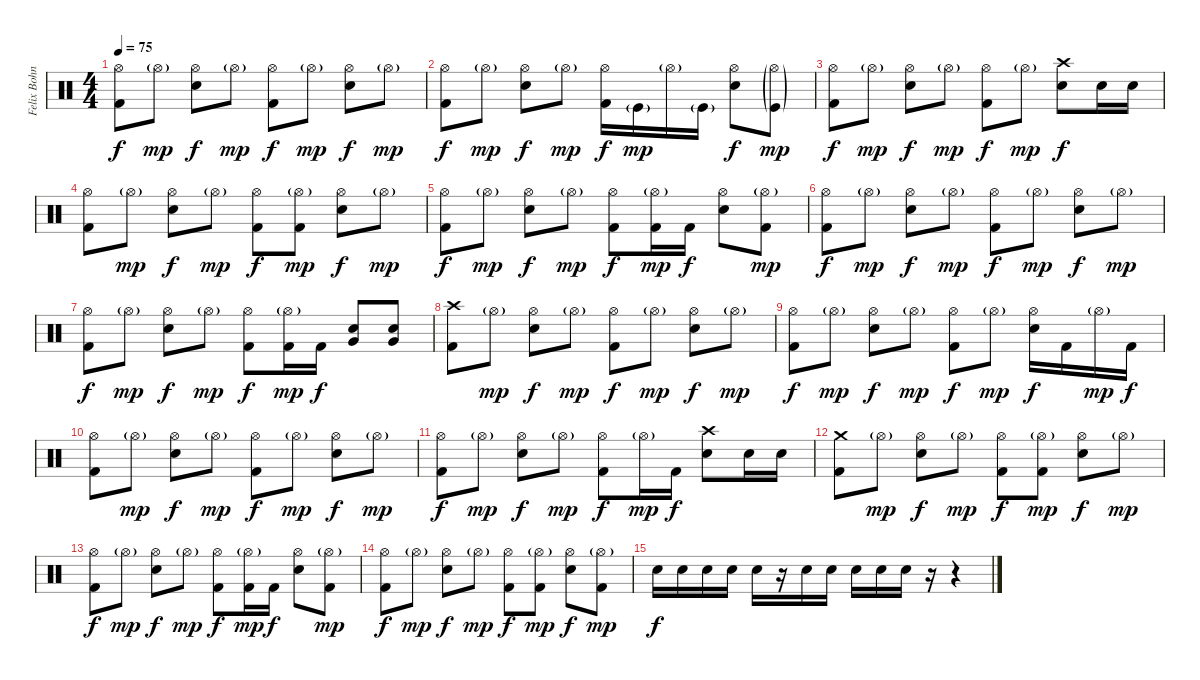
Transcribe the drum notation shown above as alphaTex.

\track ("Felix Bohnke" "Felix Bohn") {instrument percussion}
\staff {score}
\articulation defaults
\ts (4 4)
\tempo 75
\clef neutral
\ks c
("Hi-Hat (open)" "Kick (hit) 2").8{dy f} "Hi-Hat (open)"{g}.8{dy mp} ("Hi-Hat (open)" "Snare (hit) 2").8{dy f} "Hi-Hat (open)"{g}.8{dy mp} ("Hi-Hat (open)" "Kick (hit) 2").8{dy f} "Hi-Hat (open)"{g}.8{dy mp} ("Hi-Hat (open)" "Snare (hit) 2").8{dy f} "Hi-Hat (open)"{g}.8{dy mp} |
("Hi-Hat (open)" "Kick (hit) 2").8{dy f} "Hi-Hat (open)"{g}.8{dy mp} ("Hi-Hat (open)" "Snare (hit) 2").8{dy f} "Hi-Hat (open)"{g}.8{dy mp} ("Hi-Hat (open)" "Kick (hit) 2").16{dy f} "Kick (hit)"{g}.16{dy mp} "Hi-Hat (open)"{g}.16 "Kick (hit)"{g}.16 ("Hi-Hat (open)" "Snare (hit) 2").8{dy f} ("Hi-Hat (open)"{g} "Kick (hit)"{g}).8{dy mp} |
("Hi-Hat (open)" "Kick (hit) 2").8{dy f} "Hi-Hat (open)"{g}.8{dy mp} ("Hi-Hat (open)" "Snare (hit) 2").8{dy f} "Hi-Hat (open)"{g}.8{dy mp} ("Hi-Hat (open)" "Kick (hit) 2").8{dy f} "Hi-Hat (open)"{g}.8{dy mp} ("Crash high (hit)" "Snare (hit) 2").8{dy f} "Snare (hit) 2".16 "Snare (hit) 2".16 |
("Hi-Hat (open)" "Kick (hit) 2").8 "Hi-Hat (open)"{g}.8{dy mp} ("Hi-Hat (open)" "Snare (hit) 2").8{dy f} "Hi-Hat (open)"{g}.8{dy mp} ("Hi-Hat (open)" "Kick (hit) 2").8{dy f} ("Hi-Hat (open)"{g} "Kick (hit) 2").8{dy mp} ("Hi-Hat (open)" "Snare (hit) 2").8{dy f} "Hi-Hat (open)"{g}.8{dy mp} |
("Hi-Hat (open)" "Kick (hit) 2").8{dy f} "Hi-Hat (open)"{g}.8{dy mp} ("Hi-Hat (open)" "Snare (hit) 2").8{dy f} "Hi-Hat (open)"{g}.8{dy mp} ("Hi-Hat (open)" "Kick (hit) 2").8{dy f} ("Hi-Hat (open)"{g} "Kick (hit) 2").16{dy mp} "Kick (hit) 2".16{dy f} ("Hi-Hat (open)" "Snare (hit) 2").8 ("Hi-Hat (open)"{g} "Kick (hit) 2").8{dy mp} |
("Hi-Hat (open)" "Kick (hit) 2").8{dy f} "Hi-Hat (open)"{g}.8{dy mp} ("Hi-Hat (open)" "Snare (hit) 2").8{dy f} "Hi-Hat (open)"{g}.8{dy mp} ("Hi-Hat (open)" "Kick (hit) 2").8{dy f} "Hi-Hat (open)"{g}.8{dy mp} ("Hi-Hat (open)" "Snare (hit) 2").8{dy f} "Hi-Hat (open)"{g}.8{dy mp} |
("Hi-Hat (open)" "Kick (hit) 2").8{dy f} "Hi-Hat (open)"{g}.8{dy mp} ("Hi-Hat (open)" "Snare (hit) 2").8{dy f} "Hi-Hat (open)"{g}.8{dy mp} ("Hi-Hat (open)" "Kick (hit) 2").8{dy f} ("Hi-Hat (open)"{g} "Kick (hit) 2").16{dy mp} "Kick (hit) 2".16{dy f} ("Snare (hit) 2" "Very Low Tom (hit)").8 ("Snare (hit) 2" "Very Low Tom (hit)").8 |
("Crash high (hit)" "Kick (hit) 2").8 "Hi-Hat (open)"{g}.8{dy mp} ("Hi-Hat (open)" "Snare (hit) 2").8{dy f} "Hi-Hat (open)"{g}.8{dy mp} ("Hi-Hat (open)" "Kick (hit) 2").8{dy f} "Hi-Hat (open)"{g}.8{dy mp} ("Hi-Hat (open)" "Snare (hit) 2").8{dy f} "Hi-Hat (open)"{g}.8{dy mp} |
("Hi-Hat (open)" "Kick (hit) 2").8{dy f} "Hi-Hat (open)"{g}.8{dy mp} ("Hi-Hat (open)" "Snare (hit) 2").8{dy f} "Hi-Hat (open)"{g}.8{dy mp} ("Hi-Hat (open)" "Kick (hit) 2").8{dy f} "Hi-Hat (open)"{g}.8{dy mp} ("Hi-Hat (open)" "Snare (hit) 2").16{dy f} "Kick (hit) 2".16 "Hi-Hat (open)"{g}.16{dy mp} "Kick (hit) 2".16{dy f} |
("Hi-Hat (open)" "Kick (hit) 2").8 "Hi-Hat (open)"{g}.8{dy mp} ("Hi-Hat (open)" "Snare (hit) 2").8{dy f} "Hi-Hat (open)"{g}.8{dy mp} ("Hi-Hat (open)" "Kick (hit) 2").8{dy f} "Hi-Hat (open)"{g}.8{dy mp} ("Hi-Hat (open)" "Snare (hit) 2").8{dy f} "Hi-Hat (open)"{g}.8{dy mp} |
("Hi-Hat (open)" "Kick (hit) 2").8{dy f} "Hi-Hat (open)"{g}.8{dy mp} ("Hi-Hat (open)" "Snare (hit) 2").8{dy f} "Hi-Hat (open)"{g}.8{dy mp} ("Hi-Hat (open)" "Kick (hit) 2").8{dy f} "Hi-Hat (open)"{g}.16{dy mp} "Kick (hit) 2".16{dy f} ("Crash high (hit)" "Snare (hit) 2").8 "Snare (hit) 2".16 "Snare (hit) 2".16 |
("Crash medium (hit)" "Kick (hit) 2").8 "Hi-Hat (open)"{g}.8{dy mp} ("Hi-Hat (open)" "Snare (hit) 2").8{dy f} "Hi-Hat (open)"{g}.8{dy mp} ("Hi-Hat (open)" "Kick (hit) 2").8{dy f} ("Hi-Hat (open)"{g} "Kick (hit) 2").8{dy mp} ("Hi-Hat (open)" "Snare (hit) 2").8{dy f} "Hi-Hat (open)"{g}.8{dy mp} |
("Hi-Hat (open)" "Kick (hit) 2").8{dy f} "Hi-Hat (open)"{g}.8{dy mp} ("Hi-Hat (open)" "Snare (hit) 2").8{dy f} "Hi-Hat (open)"{g}.8{dy mp} ("Hi-Hat (open)" "Kick (hit) 2").8{dy f} ("Hi-Hat (open)"{g} "Kick (hit) 2").16{dy mp} "Kick (hit) 2".16{dy f} ("Hi-Hat (open)" "Snare (hit) 2").8 ("Hi-Hat (open)"{g} "Kick (hit) 2").8{dy mp} |
("Hi-Hat (open)" "Kick (hit) 2").8{dy f} "Hi-Hat (open)"{g}.8{dy mp} ("Hi-Hat (open)" "Snare (hit) 2").8{dy f} "Hi-Hat (open)"{g}.8{dy mp} ("Hi-Hat (open)" "Kick (hit) 2").8{dy f} ("Hi-Hat (open)"{g} "Kick (hit) 2").8{dy mp} ("Hi-Hat (open)" "Snare (hit) 2").8{dy f} ("Hi-Hat (open)"{g} "Kick (hit) 2").8{dy mp} |
"Snare (hit) 2".16{dy f} "Snare (hit) 2".16 "Snare (hit) 2".16 "Snare (hit) 2".16 "Snare (hit) 2".16 r.16 "Snare (hit) 2".16 "Snare (hit) 2".16 "Snare (hit) 2".16 "Snare (hit) 2".16 "Snare (hit) 2".16 r.16 r.4
